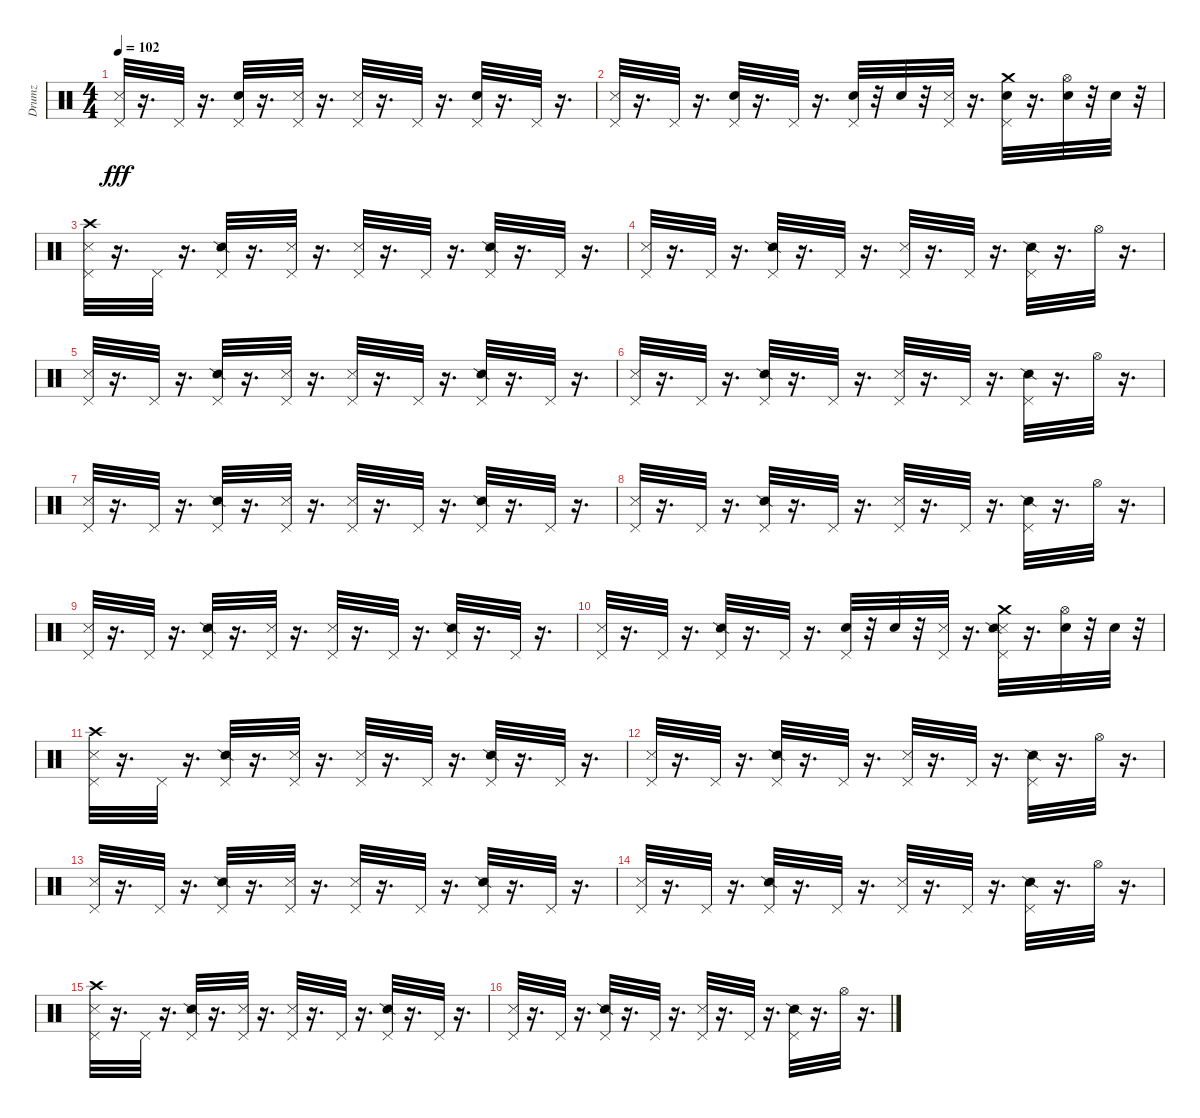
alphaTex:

\track ("Drumz" "Drumz") {instrument percussion}
\staff {score}
\articulation defaults
\ts (4 4)
\tempo 102
\clef neutral
\ks c
("Pedal Hi-Hat (hit)" "Metronome (hit)").32{dy fff} r.16{d} "Pedal Hi-Hat (hit)".32 r.16{d} ("Snare (hit) 2" "Pedal Hi-Hat (hit)").32 r.16{d} ("Metronome (hit)" "Pedal Hi-Hat (hit)").32 r.16{d} ("Metronome (hit)" "Pedal Hi-Hat (hit)").32 r.16{d} "Pedal Hi-Hat (hit)".32 r.16{d} ("Snare (hit) 2" "Pedal Hi-Hat (hit)").32 r.16{d} "Pedal Hi-Hat (hit)".32 r.16{d} |
("Metronome (hit)" "Pedal Hi-Hat (hit)").32 r.16{d} "Pedal Hi-Hat (hit)".32 r.16{d} ("Pedal Hi-Hat (hit)" "Snare (hit) 2").32 r.16{d} "Pedal Hi-Hat (hit)".32 r.16{d} ("Pedal Hi-Hat (hit)" "Snare (hit) 2").32 r.32 "Snare (hit) 2".32 r.32 ("Metronome (hit)" "Pedal Hi-Hat (hit)").32 r.16{d} ("Crash medium (hit)" "Snare (hit) 2" "Pedal Hi-Hat (hit)").32 r.16{d} ("Snare (hit) 2" "Hi-Hat (open)").32 r.32 "Snare (hit) 2".32 r.32 |
("Metronome (hit)" "Pedal Hi-Hat (hit)" "Crash high (hit)").32 r.16{d} "Pedal Hi-Hat (hit)".32 r.16{d} ("Pedal Hi-Hat (hit)" "Snare (side stick) 2").32 r.16{d} ("Metronome (hit)" "Pedal Hi-Hat (hit)").32 r.16{d} ("Pedal Hi-Hat (hit)" "Metronome (hit)").32 r.16{d} "Pedal Hi-Hat (hit)".32 r.16{d} ("Snare (side stick) 2" "Pedal Hi-Hat (hit)").32 r.16{d} "Pedal Hi-Hat (hit)".32 r.16{d} |
("Pedal Hi-Hat (hit)" "Metronome (hit)").32 r.16{d} "Pedal Hi-Hat (hit)".32 r.16{d} ("Snare (side stick) 2" "Pedal Hi-Hat (hit)").32 r.16{d} "Pedal Hi-Hat (hit)".32 r.16{d} ("Pedal Hi-Hat (hit)" "Metronome (hit)").32 r.16{d} "Pedal Hi-Hat (hit)".32 r.16{d} ("Snare (side stick) 2" "Pedal Hi-Hat (hit)").32 r.16{d} "Hi-Hat (open)".32 r.16{d} |
("Metronome (hit)" "Pedal Hi-Hat (hit)").32 r.16{d} "Pedal Hi-Hat (hit)".32 r.16{d} ("Pedal Hi-Hat (hit)" "Snare (side stick) 2").32 r.16{d} ("Pedal Hi-Hat (hit)" "Metronome (hit)").32 r.16{d} ("Pedal Hi-Hat (hit)" "Metronome (hit)").32 r.16{d} "Pedal Hi-Hat (hit)".32 r.16{d} ("Snare (side stick) 2" "Pedal Hi-Hat (hit)").32 r.16{d} "Pedal Hi-Hat (hit)".32 r.16{d} |
("Metronome (hit)" "Pedal Hi-Hat (hit)").32 r.16{d} "Pedal Hi-Hat (hit)".32 r.16{d} ("Pedal Hi-Hat (hit)" "Snare (side stick) 2").32 r.16{d} "Pedal Hi-Hat (hit)".32 r.16{d} ("Pedal Hi-Hat (hit)" "Metronome (hit)").32 r.16{d} "Pedal Hi-Hat (hit)".32 r.16{d} ("Pedal Hi-Hat (hit)" "Snare (side stick) 2").32 r.16{d} "Hi-Hat (open)".32 r.16{d} |
("Pedal Hi-Hat (hit)" "Metronome (hit)").32 r.16{d} "Pedal Hi-Hat (hit)".32 r.16{d} ("Snare (side stick) 2" "Pedal Hi-Hat (hit)").32 r.16{d} ("Metronome (hit)" "Pedal Hi-Hat (hit)").32 r.16{d} ("Pedal Hi-Hat (hit)" "Metronome (hit)").32 r.16{d} "Pedal Hi-Hat (hit)".32 r.16{d} ("Snare (side stick) 2" "Pedal Hi-Hat (hit)").32 r.16{d} "Pedal Hi-Hat (hit)".32 r.16{d} |
("Metronome (hit)" "Pedal Hi-Hat (hit)").32 r.16{d} "Pedal Hi-Hat (hit)".32 r.16{d} ("Pedal Hi-Hat (hit)" "Snare (side stick) 2").32 r.16{d} "Pedal Hi-Hat (hit)".32 r.16{d} ("Metronome (hit)" "Pedal Hi-Hat (hit)").32 r.16{d} "Pedal Hi-Hat (hit)".32 r.16{d} ("Pedal Hi-Hat (hit)" "Snare (side stick) 2").32 r.16{d} "Hi-Hat (open)".32 r.16{d} |
("Pedal Hi-Hat (hit)" "Metronome (hit)").32 r.16{d} "Pedal Hi-Hat (hit)".32 r.16{d} ("Snare (side stick) 2" "Pedal Hi-Hat (hit)").32 r.16{d} ("Pedal Hi-Hat (hit)" "Metronome (hit)").32 r.16{d} ("Metronome (hit)" "Pedal Hi-Hat (hit)").32 r.16{d} "Pedal Hi-Hat (hit)".32 r.16{d} ("Pedal Hi-Hat (hit)" "Snare (side stick) 2").32 r.16{d} "Pedal Hi-Hat (hit)".32 r.16{d} |
("Pedal Hi-Hat (hit)" "Metronome (hit)").32 r.16{d} "Pedal Hi-Hat (hit)".32 r.16{d} ("Pedal Hi-Hat (hit)" "Snare (side stick) 2").32 r.16{d} "Pedal Hi-Hat (hit)".32 r.16{d} ("Snare (hit) 2" "Pedal Hi-Hat (hit)").32 r.32 "Snare (hit) 2".32 r.32 ("Pedal Hi-Hat (hit)" "Metronome (hit)").32 r.16{d} ("Crash medium (hit)" "Metronome (hit)" "Pedal Hi-Hat (hit)" "Snare (side stick) 2").32 r.16{d} ("Hi-Hat (open)" "Snare (hit) 2").32 r.32 "Snare (hit) 2".32 r.32 |
("Crash high (hit)" "Pedal Hi-Hat (hit)" "Metronome (hit)").32 r.16{d} "Pedal Hi-Hat (hit)".32 r.16{d} ("Pedal Hi-Hat (hit)" "Snare (side stick) 2").32 r.16{d} ("Pedal Hi-Hat (hit)" "Metronome (hit)").32 r.16{d} ("Metronome (hit)" "Pedal Hi-Hat (hit)").32 r.16{d} "Pedal Hi-Hat (hit)".32 r.16{d} ("Snare (side stick) 2" "Pedal Hi-Hat (hit)").32 r.16{d} "Pedal Hi-Hat (hit)".32 r.16{d} |
("Metronome (hit)" "Pedal Hi-Hat (hit)").32 r.16{d} "Pedal Hi-Hat (hit)".32 r.16{d} ("Pedal Hi-Hat (hit)" "Snare (side stick) 2").32 r.16{d} "Pedal Hi-Hat (hit)".32 r.16{d} ("Metronome (hit)" "Pedal Hi-Hat (hit)").32 r.16{d} "Pedal Hi-Hat (hit)".32 r.16{d} ("Snare (side stick) 2" "Pedal Hi-Hat (hit)").32 r.16{d} "Hi-Hat (open)".32 r.16{d} |
("Metronome (hit)" "Pedal Hi-Hat (hit)").32 r.16{d} "Pedal Hi-Hat (hit)".32 r.16{d} ("Pedal Hi-Hat (hit)" "Snare (side stick) 2").32 r.16{d} ("Pedal Hi-Hat (hit)" "Metronome (hit)").32 r.16{d} ("Metronome (hit)" "Pedal Hi-Hat (hit)").32 r.16{d} "Pedal Hi-Hat (hit)".32 r.16{d} ("Pedal Hi-Hat (hit)" "Snare (side stick) 2").32 r.16{d} "Pedal Hi-Hat (hit)".32 r.16{d} |
("Pedal Hi-Hat (hit)" "Metronome (hit)").32 r.16{d} "Pedal Hi-Hat (hit)".32 r.16{d} ("Snare (side stick) 2" "Pedal Hi-Hat (hit)").32 r.16{d} "Pedal Hi-Hat (hit)".32 r.16{d} ("Metronome (hit)" "Pedal Hi-Hat (hit)").32 r.16{d} "Pedal Hi-Hat (hit)".32 r.16{d} ("Pedal Hi-Hat (hit)" "Snare (side stick) 2").32 r.16{d} "Hi-Hat (open)".32 r.16{d} |
("Crash high (hit)" "Metronome (hit)" "Pedal Hi-Hat (hit)").32 r.16{d} "Pedal Hi-Hat (hit)".32 r.16{d} ("Snare (side stick) 2" "Pedal Hi-Hat (hit)").32 r.16{d} ("Metronome (hit)" "Pedal Hi-Hat (hit)").32 r.16{d} ("Metronome (hit)" "Pedal Hi-Hat (hit)").32 r.16{d} "Pedal Hi-Hat (hit)".32 r.16{d} ("Snare (side stick) 2" "Pedal Hi-Hat (hit)").32 r.16{d} "Pedal Hi-Hat (hit)".32 r.16{d} |
("Pedal Hi-Hat (hit)" "Metronome (hit)").32 r.16{d} "Pedal Hi-Hat (hit)".32 r.16{d} ("Pedal Hi-Hat (hit)" "Snare (side stick) 2").32 r.16{d} "Pedal Hi-Hat (hit)".32 r.16{d} ("Pedal Hi-Hat (hit)" "Metronome (hit)").32 r.16{d} "Pedal Hi-Hat (hit)".32 r.16{d} ("Pedal Hi-Hat (hit)" "Snare (side stick) 2").32 r.16{d} "Hi-Hat (open)".32 r.16{d}
